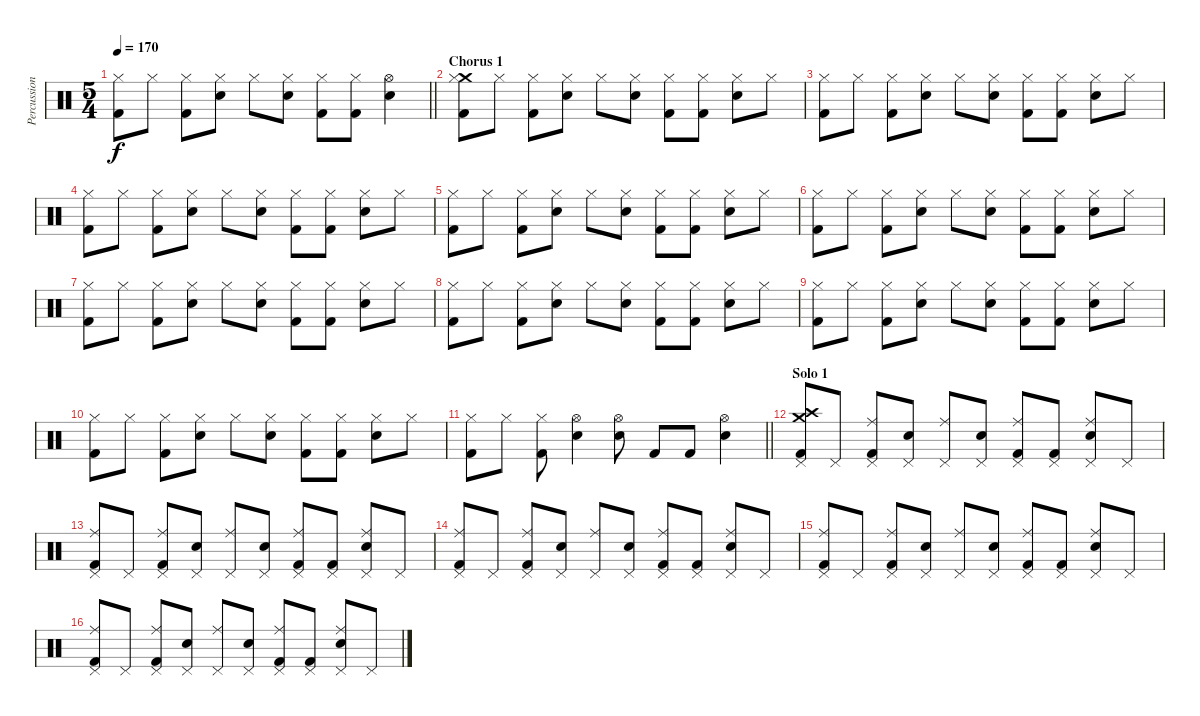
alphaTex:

\track ("Percussion" "Percussion") {instrument percussion}
\staff {score}
\articulation defaults
\ts (5 4)
\tempo 170
\clef neutral
\barLineRight lightlight
\ks c
("Hi-Hat (closed)" "Kick (hit) 2").8{dy f} "Hi-Hat (closed)".8 ("Hi-Hat (closed)" "Kick (hit) 2").8 ("Hi-Hat (closed)" "Electric Snare (hit)").8 "Hi-Hat (closed)".8 ("Hi-Hat (closed)" "Electric Snare (hit)").8 ("Hi-Hat (closed)" "Kick (hit) 2").8 ("Hi-Hat (closed)" "Kick (hit) 2").8 ("Hi-Hat (open)" "Electric Snare (hit)").4 |
\section ("" "Chorus 1")
("Crash medium (hit)" "Hi-Hat (closed)" "Kick (hit) 2").8 "Hi-Hat (closed)".8 ("Hi-Hat (closed)" "Kick (hit) 2").8 ("Hi-Hat (closed)" "Electric Snare (hit)").8 "Hi-Hat (closed)".8 ("Hi-Hat (closed)" "Electric Snare (hit)").8 ("Hi-Hat (closed)" "Kick (hit) 2").8 ("Hi-Hat (closed)" "Kick (hit) 2").8 ("Hi-Hat (closed)" "Electric Snare (hit)").8 "Hi-Hat (closed)".8 |
("Hi-Hat (closed)" "Kick (hit) 2").8 "Hi-Hat (closed)".8 ("Hi-Hat (closed)" "Kick (hit) 2").8 ("Hi-Hat (closed)" "Electric Snare (hit)").8 "Hi-Hat (closed)".8 ("Hi-Hat (closed)" "Electric Snare (hit)").8 ("Hi-Hat (closed)" "Kick (hit) 2").8 ("Hi-Hat (closed)" "Kick (hit) 2").8 ("Hi-Hat (closed)" "Electric Snare (hit)").8 "Hi-Hat (closed)".8 |
("Hi-Hat (closed)" "Kick (hit) 2").8 "Hi-Hat (closed)".8 ("Hi-Hat (closed)" "Kick (hit) 2").8 ("Hi-Hat (closed)" "Electric Snare (hit)").8 "Hi-Hat (closed)".8 ("Hi-Hat (closed)" "Electric Snare (hit)").8 ("Hi-Hat (closed)" "Kick (hit) 2").8 ("Hi-Hat (closed)" "Kick (hit) 2").8 ("Hi-Hat (closed)" "Electric Snare (hit)").8 "Hi-Hat (closed)".8 |
("Hi-Hat (closed)" "Kick (hit) 2").8 "Hi-Hat (closed)".8 ("Hi-Hat (closed)" "Kick (hit) 2").8 ("Hi-Hat (closed)" "Electric Snare (hit)").8 "Hi-Hat (closed)".8 ("Hi-Hat (closed)" "Electric Snare (hit)").8 ("Hi-Hat (closed)" "Kick (hit) 2").8 ("Hi-Hat (closed)" "Kick (hit) 2").8 ("Hi-Hat (closed)" "Electric Snare (hit)").8 "Hi-Hat (closed)".8 |
("Hi-Hat (closed)" "Kick (hit) 2").8 "Hi-Hat (closed)".8 ("Hi-Hat (closed)" "Kick (hit) 2").8 ("Hi-Hat (closed)" "Electric Snare (hit)").8 "Hi-Hat (closed)".8 ("Hi-Hat (closed)" "Electric Snare (hit)").8 ("Hi-Hat (closed)" "Kick (hit) 2").8 ("Hi-Hat (closed)" "Kick (hit) 2").8 ("Hi-Hat (closed)" "Electric Snare (hit)").8 "Hi-Hat (closed)".8 |
("Hi-Hat (closed)" "Kick (hit) 2").8 "Hi-Hat (closed)".8 ("Hi-Hat (closed)" "Kick (hit) 2").8 ("Hi-Hat (closed)" "Electric Snare (hit)").8 "Hi-Hat (closed)".8 ("Hi-Hat (closed)" "Electric Snare (hit)").8 ("Hi-Hat (closed)" "Kick (hit) 2").8 ("Hi-Hat (closed)" "Kick (hit) 2").8 ("Hi-Hat (closed)" "Electric Snare (hit)").8 "Hi-Hat (closed)".8 |
("Hi-Hat (closed)" "Kick (hit) 2").8 "Hi-Hat (closed)".8 ("Hi-Hat (closed)" "Kick (hit) 2").8 ("Hi-Hat (closed)" "Electric Snare (hit)").8 "Hi-Hat (closed)".8 ("Hi-Hat (closed)" "Electric Snare (hit)").8 ("Hi-Hat (closed)" "Kick (hit) 2").8 ("Hi-Hat (closed)" "Kick (hit) 2").8 ("Hi-Hat (closed)" "Electric Snare (hit)").8 "Hi-Hat (closed)".8 |
("Hi-Hat (closed)" "Kick (hit) 2").8 "Hi-Hat (closed)".8 ("Hi-Hat (closed)" "Kick (hit) 2").8 ("Hi-Hat (closed)" "Electric Snare (hit)").8 "Hi-Hat (closed)".8 ("Hi-Hat (closed)" "Electric Snare (hit)").8 ("Hi-Hat (closed)" "Kick (hit) 2").8 ("Hi-Hat (closed)" "Kick (hit) 2").8 ("Hi-Hat (closed)" "Electric Snare (hit)").8 "Hi-Hat (closed)".8 |
("Hi-Hat (closed)" "Kick (hit) 2").8 "Hi-Hat (closed)".8 ("Hi-Hat (closed)" "Kick (hit) 2").8 ("Hi-Hat (closed)" "Electric Snare (hit)").8 "Hi-Hat (closed)".8 ("Hi-Hat (closed)" "Electric Snare (hit)").8 ("Hi-Hat (closed)" "Kick (hit) 2").8 ("Hi-Hat (closed)" "Kick (hit) 2").8 ("Hi-Hat (closed)" "Electric Snare (hit)").8 "Hi-Hat (closed)".8 |
\barLineRight lightlight
("Hi-Hat (closed)" "Kick (hit) 2").8 "Hi-Hat (closed)".8 ("Hi-Hat (closed)" "Kick (hit) 2").8 ("Hi-Hat (open)" "Electric Snare (hit)").4 ("Hi-Hat (open)" "Electric Snare (hit)").8 "Kick (hit) 2".8 "Kick (hit) 2".8 ("Hi-Hat (open)" "Electric Snare (hit)").4 |
\section ("" "Solo 1")
("Crash medium (hit)" "Crash high (hit)" "Pedal Hi-Hat (hit)" "Kick (hit) 2").8 "Pedal Hi-Hat (hit)".8 ("Ride (middle)" "Pedal Hi-Hat (hit)" "Kick (hit) 2").8 ("Electric Snare (hit)" "Pedal Hi-Hat (hit)").8 ("Ride (middle)" "Pedal Hi-Hat (hit)").8 ("Electric Snare (hit)" "Pedal Hi-Hat (hit)").8 ("Ride (middle)" "Pedal Hi-Hat (hit)" "Kick (hit) 2").8 ("Pedal Hi-Hat (hit)" "Kick (hit) 2").8 ("Ride (middle)" "Electric Snare (hit)" "Pedal Hi-Hat (hit)").8 "Pedal Hi-Hat (hit)".8 |
("Ride (middle)" "Pedal Hi-Hat (hit)" "Kick (hit) 2").8 "Pedal Hi-Hat (hit)".8 ("Ride (middle)" "Pedal Hi-Hat (hit)" "Kick (hit) 2").8 ("Electric Snare (hit)" "Pedal Hi-Hat (hit)").8 ("Ride (middle)" "Pedal Hi-Hat (hit)").8 ("Electric Snare (hit)" "Pedal Hi-Hat (hit)").8 ("Ride (middle)" "Pedal Hi-Hat (hit)" "Kick (hit) 2").8 ("Pedal Hi-Hat (hit)" "Kick (hit) 2").8 ("Ride (middle)" "Electric Snare (hit)" "Pedal Hi-Hat (hit)").8 "Pedal Hi-Hat (hit)".8 |
("Ride (middle)" "Pedal Hi-Hat (hit)" "Kick (hit) 2").8 "Pedal Hi-Hat (hit)".8 ("Ride (middle)" "Pedal Hi-Hat (hit)" "Kick (hit) 2").8 ("Electric Snare (hit)" "Pedal Hi-Hat (hit)").8 ("Ride (middle)" "Pedal Hi-Hat (hit)").8 ("Electric Snare (hit)" "Pedal Hi-Hat (hit)").8 ("Ride (middle)" "Pedal Hi-Hat (hit)" "Kick (hit) 2").8 ("Pedal Hi-Hat (hit)" "Kick (hit) 2").8 ("Ride (middle)" "Electric Snare (hit)" "Pedal Hi-Hat (hit)").8 "Pedal Hi-Hat (hit)".8 |
("Ride (middle)" "Pedal Hi-Hat (hit)" "Kick (hit) 2").8 "Pedal Hi-Hat (hit)".8 ("Ride (middle)" "Pedal Hi-Hat (hit)" "Kick (hit) 2").8 ("Electric Snare (hit)" "Pedal Hi-Hat (hit)").8 ("Ride (middle)" "Pedal Hi-Hat (hit)").8 ("Electric Snare (hit)" "Pedal Hi-Hat (hit)").8 ("Ride (middle)" "Pedal Hi-Hat (hit)" "Kick (hit) 2").8 ("Pedal Hi-Hat (hit)" "Kick (hit) 2").8 ("Ride (middle)" "Electric Snare (hit)" "Pedal Hi-Hat (hit)").8 "Pedal Hi-Hat (hit)".8 |
("Ride (middle)" "Pedal Hi-Hat (hit)" "Kick (hit) 2").8 "Pedal Hi-Hat (hit)".8 ("Ride (middle)" "Pedal Hi-Hat (hit)" "Kick (hit) 2").8 ("Electric Snare (hit)" "Pedal Hi-Hat (hit)").8 ("Ride (middle)" "Pedal Hi-Hat (hit)").8 ("Electric Snare (hit)" "Pedal Hi-Hat (hit)").8 ("Ride (middle)" "Pedal Hi-Hat (hit)" "Kick (hit) 2").8 ("Pedal Hi-Hat (hit)" "Kick (hit) 2").8 ("Ride (middle)" "Electric Snare (hit)" "Pedal Hi-Hat (hit)").8 "Pedal Hi-Hat (hit)".8
